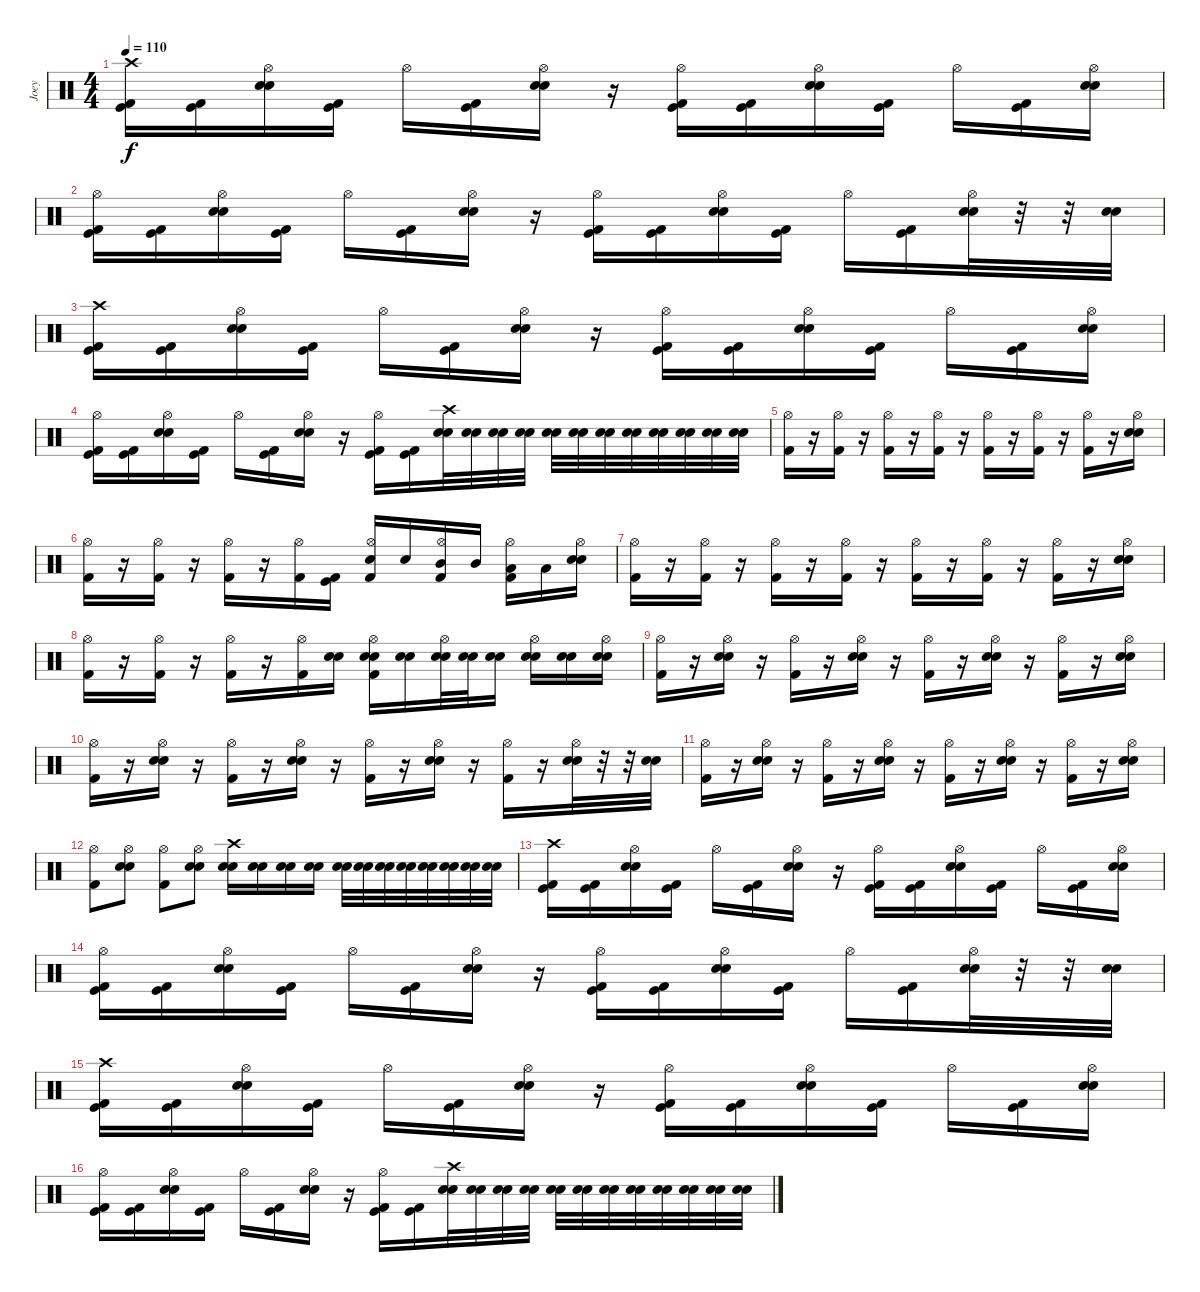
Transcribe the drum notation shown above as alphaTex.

\track ("Joey" "Joey") {instrument percussion}
\staff {score}
\articulation defaults
\ts (4 4)
\tempo 110
\clef neutral
\ks c
("Crash high (hit)" "Kick (hit)" "Kick (hit) 2").16{dy f} ("Kick (hit)" "Kick (hit) 2").16 ("Hi-Hat (open)" "Snare (hit) 2" "Electric Snare (hit)").16 ("Kick (hit)" "Kick (hit) 2").16 "Hi-Hat (open)".16 ("Kick (hit)" "Kick (hit) 2").16 ("Hi-Hat (open)" "Snare (hit) 2" "Electric Snare (hit)").16 r.16 ("Hi-Hat (open)" "Kick (hit)" "Kick (hit) 2").16 ("Kick (hit)" "Kick (hit) 2").16 ("Hi-Hat (open)" "Snare (hit) 2" "Electric Snare (hit)").16 ("Kick (hit)" "Kick (hit) 2").16 "Hi-Hat (open)".16 ("Kick (hit)" "Kick (hit) 2").16 ("Hi-Hat (open)" "Snare (hit) 2" "Electric Snare (hit)").16 |
("Hi-Hat (open)" "Kick (hit)" "Kick (hit) 2").16 ("Kick (hit)" "Kick (hit) 2").16 ("Hi-Hat (open)" "Snare (hit) 2" "Electric Snare (hit)").16 ("Kick (hit)" "Kick (hit) 2").16 "Hi-Hat (open)".16 ("Kick (hit)" "Kick (hit) 2").16 ("Hi-Hat (open)" "Snare (hit) 2" "Electric Snare (hit)").16 r.16 ("Hi-Hat (open)" "Kick (hit)" "Kick (hit) 2").16 ("Kick (hit)" "Kick (hit) 2").16 ("Hi-Hat (open)" "Snare (hit) 2" "Electric Snare (hit)").16 ("Kick (hit)" "Kick (hit) 2").16 "Hi-Hat (open)".16 ("Kick (hit)" "Kick (hit) 2").16 ("Hi-Hat (open)" "Snare (hit) 2" "Electric Snare (hit)").32 r.32 r.32 ("Snare (hit) 2" "Electric Snare (hit)").32 |
("Crash high (hit)" "Kick (hit)" "Kick (hit) 2").16 ("Kick (hit)" "Kick (hit) 2").16 ("Hi-Hat (open)" "Snare (hit) 2" "Electric Snare (hit)").16 ("Kick (hit)" "Kick (hit) 2").16 "Hi-Hat (open)".16 ("Kick (hit)" "Kick (hit) 2").16 ("Hi-Hat (open)" "Snare (hit) 2" "Electric Snare (hit)").16 r.16 ("Hi-Hat (open)" "Kick (hit)" "Kick (hit) 2").16 ("Kick (hit)" "Kick (hit) 2").16 ("Hi-Hat (open)" "Snare (hit) 2" "Electric Snare (hit)").16 ("Kick (hit)" "Kick (hit) 2").16 "Hi-Hat (open)".16 ("Kick (hit)" "Kick (hit) 2").16 ("Hi-Hat (open)" "Snare (hit) 2" "Electric Snare (hit)").16 |
("Hi-Hat (open)" "Kick (hit)" "Kick (hit) 2").16 ("Kick (hit)" "Kick (hit) 2").16 ("Hi-Hat (open)" "Snare (hit) 2" "Electric Snare (hit)").16 ("Kick (hit)" "Kick (hit) 2").16 "Hi-Hat (open)".16 ("Kick (hit)" "Kick (hit) 2").16 ("Hi-Hat (open)" "Snare (hit) 2" "Electric Snare (hit)").16 r.16 ("Hi-Hat (open)" "Kick (hit)" "Kick (hit) 2").16 ("Kick (hit)" "Kick (hit) 2").16 ("Crash high (hit)" "Snare (hit) 2" "Electric Snare (hit)").32 ("Snare (hit) 2" "Electric Snare (hit)").32 ("Snare (hit) 2" "Electric Snare (hit)").32 ("Snare (hit) 2" "Electric Snare (hit)").32 ("Snare (hit) 2" "Electric Snare (hit)").32 ("Snare (hit) 2" "Electric Snare (hit)").32 ("Snare (hit) 2" "Electric Snare (hit)").32 ("Snare (hit) 2" "Electric Snare (hit)").32 ("Snare (hit) 2" "Electric Snare (hit)").32 ("Snare (hit) 2" "Electric Snare (hit)").32 ("Snare (hit) 2" "Electric Snare (hit)").32 ("Snare (hit) 2" "Electric Snare (hit)").32 |
("Hi-Hat (open)" "Kick (hit) 2").16 r.16 ("Hi-Hat (open)" "Kick (hit) 2").16 r.16 ("Hi-Hat (open)" "Kick (hit) 2").16 r.16 ("Hi-Hat (open)" "Kick (hit) 2").16 r.16 ("Hi-Hat (open)" "Kick (hit) 2").16 r.16 ("Hi-Hat (open)" "Kick (hit) 2").16 r.16 ("Hi-Hat (open)" "Kick (hit) 2").16 r.16 ("Hi-Hat (open)" "Snare (hit) 2" "Electric Snare (hit)").16 |
("Hi-Hat (open)" "Kick (hit) 2").16 r.16 ("Hi-Hat (open)" "Kick (hit) 2").16 r.16 ("Hi-Hat (open)" "Kick (hit) 2").16 r.16 ("Hi-Hat (open)" "Kick (hit) 2").16 ("Kick (hit)" "Kick (hit) 2").16 ("Hi-Hat (open)" "Electric Snare (hit)" "Kick (hit) 2").16 "Electric Snare (hit)".16 ("Hi-Hat (open)" "Mid Tom (hit)" "Kick (hit) 2").16 "Mid Tom (hit)".16 ("Hi-Hat (open)" "Low Tom (hit)" "Kick (hit) 2").16 "Low Tom (hit)".16 ("Hi-Hat (open)" "Snare (hit) 2" "Electric Snare (hit)").16 |
("Hi-Hat (open)" "Kick (hit) 2").16 r.16 ("Hi-Hat (open)" "Kick (hit) 2").16 r.16 ("Hi-Hat (open)" "Kick (hit) 2").16 r.16 ("Hi-Hat (open)" "Kick (hit) 2").16 r.16 ("Hi-Hat (open)" "Kick (hit) 2").16 r.16 ("Hi-Hat (open)" "Kick (hit) 2").16 r.16 ("Hi-Hat (open)" "Kick (hit) 2").16 r.16 ("Hi-Hat (open)" "Snare (hit) 2" "Electric Snare (hit)").16 |
("Hi-Hat (open)" "Kick (hit) 2").16 r.16 ("Hi-Hat (open)" "Kick (hit) 2").16 r.16 ("Hi-Hat (open)" "Kick (hit) 2").16 r.16 ("Hi-Hat (open)" "Kick (hit) 2").16 ("Electric Snare (hit)" "Snare (hit) 2").16 ("Hi-Hat (open)" "Electric Snare (hit)" "Snare (hit) 2" "Kick (hit) 2").16 ("Electric Snare (hit)" "Snare (hit) 2").16 ("Hi-Hat (open)" "Electric Snare (hit)" "Snare (hit) 2").32 ("Electric Snare (hit)" "Snare (hit) 2").32 ("Electric Snare (hit)" "Snare (hit) 2").16 ("Hi-Hat (open)" "Electric Snare (hit)" "Snare (hit) 2").16 ("Electric Snare (hit)" "Snare (hit) 2").16 ("Hi-Hat (open)" "Electric Snare (hit)" "Snare (hit) 2").16 |
("Hi-Hat (open)" "Kick (hit) 2").16 r.16 ("Hi-Hat (open)" "Snare (hit) 2" "Electric Snare (hit)").16 r.16 ("Hi-Hat (open)" "Kick (hit) 2").16 r.16 ("Hi-Hat (open)" "Snare (hit) 2" "Electric Snare (hit)").16 r.16 ("Hi-Hat (open)" "Kick (hit) 2").16 r.16 ("Hi-Hat (open)" "Snare (hit) 2" "Electric Snare (hit)").16 r.16 ("Hi-Hat (open)" "Kick (hit) 2").16 r.16 ("Hi-Hat (open)" "Snare (hit) 2" "Electric Snare (hit)").16 |
("Hi-Hat (open)" "Kick (hit) 2").16 r.16 ("Hi-Hat (open)" "Snare (hit) 2" "Electric Snare (hit)").16 r.16 ("Hi-Hat (open)" "Kick (hit) 2").16 r.16 ("Hi-Hat (open)" "Snare (hit) 2" "Electric Snare (hit)").16 r.16 ("Hi-Hat (open)" "Kick (hit) 2").16 r.16 ("Hi-Hat (open)" "Snare (hit) 2" "Electric Snare (hit)").16 r.16 ("Hi-Hat (open)" "Kick (hit) 2").16 r.16 ("Hi-Hat (open)" "Snare (hit) 2" "Electric Snare (hit)").32 r.32 r.32 ("Snare (hit) 2" "Electric Snare (hit)").32 |
("Hi-Hat (open)" "Kick (hit) 2").16 r.16 ("Hi-Hat (open)" "Snare (hit) 2" "Electric Snare (hit)").16 r.16 ("Hi-Hat (open)" "Kick (hit) 2").16 r.16 ("Hi-Hat (open)" "Snare (hit) 2" "Electric Snare (hit)").16 r.16 ("Hi-Hat (open)" "Kick (hit) 2").16 r.16 ("Hi-Hat (open)" "Snare (hit) 2" "Electric Snare (hit)").16 r.16 ("Hi-Hat (open)" "Kick (hit) 2").16 r.16 ("Hi-Hat (open)" "Snare (hit) 2" "Electric Snare (hit)").16 |
("Hi-Hat (open)" "Kick (hit) 2").8 ("Hi-Hat (open)" "Snare (hit) 2" "Electric Snare (hit)").8 ("Hi-Hat (open)" "Kick (hit) 2").8 ("Hi-Hat (open)" "Snare (hit) 2" "Electric Snare (hit)").8 ("Crash high (hit)" "Electric Snare (hit)" "Snare (hit) 2").16 ("Electric Snare (hit)" "Snare (hit) 2").16 ("Electric Snare (hit)" "Snare (hit) 2").16 ("Electric Snare (hit)" "Snare (hit) 2").16 ("Electric Snare (hit)" "Snare (hit) 2").32 ("Electric Snare (hit)" "Snare (hit) 2").32 ("Electric Snare (hit)" "Snare (hit) 2").32 ("Electric Snare (hit)" "Snare (hit) 2").32 ("Electric Snare (hit)" "Snare (hit) 2").32 ("Electric Snare (hit)" "Snare (hit) 2").32 ("Electric Snare (hit)" "Snare (hit) 2").32 ("Electric Snare (hit)" "Snare (hit) 2").32 |
("Crash high (hit)" "Kick (hit)" "Kick (hit) 2").16 ("Kick (hit)" "Kick (hit) 2").16 ("Hi-Hat (open)" "Snare (hit) 2" "Electric Snare (hit)").16 ("Kick (hit)" "Kick (hit) 2").16 "Hi-Hat (open)".16 ("Kick (hit)" "Kick (hit) 2").16 ("Hi-Hat (open)" "Snare (hit) 2" "Electric Snare (hit)").16 r.16 ("Hi-Hat (open)" "Kick (hit)" "Kick (hit) 2").16 ("Kick (hit)" "Kick (hit) 2").16 ("Hi-Hat (open)" "Snare (hit) 2" "Electric Snare (hit)").16 ("Kick (hit)" "Kick (hit) 2").16 "Hi-Hat (open)".16 ("Kick (hit)" "Kick (hit) 2").16 ("Hi-Hat (open)" "Snare (hit) 2" "Electric Snare (hit)").16 |
("Hi-Hat (open)" "Kick (hit)" "Kick (hit) 2").16 ("Kick (hit)" "Kick (hit) 2").16 ("Hi-Hat (open)" "Snare (hit) 2" "Electric Snare (hit)").16 ("Kick (hit)" "Kick (hit) 2").16 "Hi-Hat (open)".16 ("Kick (hit)" "Kick (hit) 2").16 ("Hi-Hat (open)" "Snare (hit) 2" "Electric Snare (hit)").16 r.16 ("Hi-Hat (open)" "Kick (hit)" "Kick (hit) 2").16 ("Kick (hit)" "Kick (hit) 2").16 ("Hi-Hat (open)" "Snare (hit) 2" "Electric Snare (hit)").16 ("Kick (hit)" "Kick (hit) 2").16 "Hi-Hat (open)".16 ("Kick (hit)" "Kick (hit) 2").16 ("Hi-Hat (open)" "Snare (hit) 2" "Electric Snare (hit)").32 r.32 r.32 ("Snare (hit) 2" "Electric Snare (hit)").32 |
("Crash high (hit)" "Kick (hit)" "Kick (hit) 2").16 ("Kick (hit)" "Kick (hit) 2").16 ("Hi-Hat (open)" "Snare (hit) 2" "Electric Snare (hit)").16 ("Kick (hit)" "Kick (hit) 2").16 "Hi-Hat (open)".16 ("Kick (hit)" "Kick (hit) 2").16 ("Hi-Hat (open)" "Snare (hit) 2" "Electric Snare (hit)").16 r.16 ("Hi-Hat (open)" "Kick (hit)" "Kick (hit) 2").16 ("Kick (hit)" "Kick (hit) 2").16 ("Hi-Hat (open)" "Snare (hit) 2" "Electric Snare (hit)").16 ("Kick (hit)" "Kick (hit) 2").16 "Hi-Hat (open)".16 ("Kick (hit)" "Kick (hit) 2").16 ("Hi-Hat (open)" "Snare (hit) 2" "Electric Snare (hit)").16 |
("Hi-Hat (open)" "Kick (hit)" "Kick (hit) 2").16 ("Kick (hit)" "Kick (hit) 2").16 ("Hi-Hat (open)" "Snare (hit) 2" "Electric Snare (hit)").16 ("Kick (hit)" "Kick (hit) 2").16 "Hi-Hat (open)".16 ("Kick (hit)" "Kick (hit) 2").16 ("Hi-Hat (open)" "Snare (hit) 2" "Electric Snare (hit)").16 r.16 ("Hi-Hat (open)" "Kick (hit)" "Kick (hit) 2").16 ("Kick (hit)" "Kick (hit) 2").16 ("Crash high (hit)" "Snare (hit) 2" "Electric Snare (hit)").32 ("Snare (hit) 2" "Electric Snare (hit)").32 ("Snare (hit) 2" "Electric Snare (hit)").32 ("Snare (hit) 2" "Electric Snare (hit)").32 ("Snare (hit) 2" "Electric Snare (hit)").32 ("Snare (hit) 2" "Electric Snare (hit)").32 ("Snare (hit) 2" "Electric Snare (hit)").32 ("Snare (hit) 2" "Electric Snare (hit)").32 ("Snare (hit) 2" "Electric Snare (hit)").32 ("Snare (hit) 2" "Electric Snare (hit)").32 ("Snare (hit) 2" "Electric Snare (hit)").32 ("Snare (hit) 2" "Electric Snare (hit)").32
